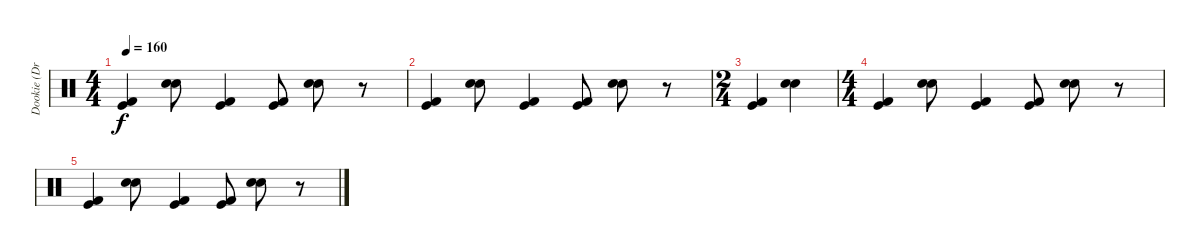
\track ("Dookie (Drums)" "Dookie (Dr") {instrument percussion}
\staff {score}
\articulation defaults
\ts (4 4)
\tempo 160
\clef neutral
\ks c
("Kick (hit) 2" "Kick (hit)").4{dy f} ("Electric Snare (hit)" "Electric Snare (hit)").8 ("Kick (hit) 2" "Kick (hit)").4 ("Kick (hit) 2" "Kick (hit)").8 ("Electric Snare (hit)" "Electric Snare (hit)").8 r.8 |
("Kick (hit) 2" "Kick (hit)").4 ("Electric Snare (hit)" "Electric Snare (hit)").8 ("Kick (hit) 2" "Kick (hit)").4 ("Kick (hit) 2" "Kick (hit)").8 ("Electric Snare (hit)" "Electric Snare (hit)").8 r.8 |
\ts (2 4)
("Kick (hit) 2" "Kick (hit)").4 ("Electric Snare (hit)" "Electric Snare (hit)").4 |
\ts (4 4)
("Kick (hit) 2" "Kick (hit)").4 ("Electric Snare (hit)" "Electric Snare (hit)").8 ("Kick (hit) 2" "Kick (hit)").4 ("Kick (hit) 2" "Kick (hit)").8 ("Electric Snare (hit)" "Electric Snare (hit)").8 r.8 |
("Kick (hit) 2" "Kick (hit)").4 ("Electric Snare (hit)" "Electric Snare (hit)").8 ("Kick (hit) 2" "Kick (hit)").4 ("Kick (hit) 2" "Kick (hit)").8 ("Electric Snare (hit)" "Electric Snare (hit)").8 r.8
